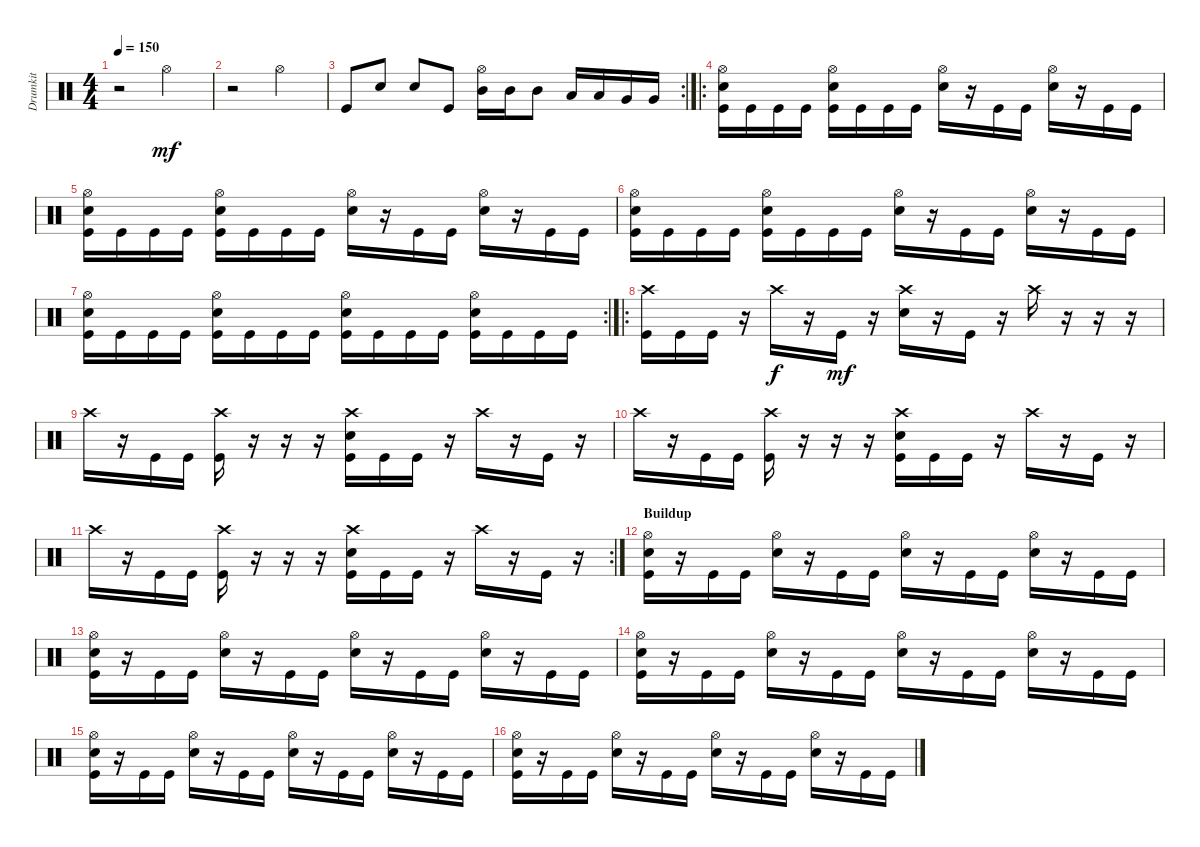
\track ("Drumkit" "Drumkit") {instrument percussion}
\staff {score}
\articulation defaults
\ts (4 4)
\tempo 150
\clef neutral
\ks c
r.2{dy mf} "Hi-Hat (open)".2 |
r.2 "Hi-Hat (open)".2 |
\rc 2 "Kick (hit)".8 "Snare (hit) 2".8 "Snare (hit) 2".8 "Kick (hit)".8
("Hi-Hat (open)" "Mid Tom (hit)").16 "Mid Tom (hit)".16 "Mid Tom (hit)".8 "Low Tom (hit)".16 "Low Tom (hit)".16 "Very Low Tom (hit)".16 "Very Low Tom (hit)".16 |
\ro
("Kick (hit)" "Hi-Hat (open)" "Snare (hit) 2").16 "Kick (hit)".16 "Kick (hit)".16 "Kick (hit)".16 ("Hi-Hat (open)" "Kick (hit)" "Snare (hit) 2").16 "Kick (hit)".16 "Kick (hit)".16 "Kick (hit)".16 ("Snare (hit) 2" "Hi-Hat (open)").16 r.16 "Kick (hit)".16 "Kick (hit)".16 ("Snare (hit) 2" "Hi-Hat (open)").16 r.16 "Kick (hit)".16 "Kick (hit)".16 |
("Snare (hit) 2" "Kick (hit)" "Hi-Hat (open)").16 "Kick (hit)".16 "Kick (hit)".16 "Kick (hit)".16 ("Snare (hit) 2" "Hi-Hat (open)" "Kick (hit)").16 "Kick (hit)".16 "Kick (hit)".16 "Kick (hit)".16 ("Snare (hit) 2" "Hi-Hat (open)").16 r.16 "Kick (hit)".16 "Kick (hit)".16 ("Snare (hit) 2" "Hi-Hat (open)").16 r.16 "Kick (hit)".16 "Kick (hit)".16 |
("Snare (hit) 2" "Kick (hit)" "Hi-Hat (open)").16 "Kick (hit)".16 "Kick (hit)".16 "Kick (hit)".16 ("Snare (hit) 2" "Hi-Hat (open)" "Kick (hit)").16 "Kick (hit)".16 "Kick (hit)".16 "Kick (hit)".16 ("Snare (hit) 2" "Hi-Hat (open)").16 r.16 "Kick (hit)".16 "Kick (hit)".16 ("Snare (hit) 2" "Hi-Hat (open)").16 r.16 "Kick (hit)".16 "Kick (hit)".16 |
\rc 2
("Snare (hit) 2" "Kick (hit)" "Hi-Hat (open)").16 "Kick (hit)".16 "Kick (hit)".16 "Kick (hit)".16 ("Snare (hit) 2" "Hi-Hat (open)" "Kick (hit)").16 "Kick (hit)".16 "Kick (hit)".16 "Kick (hit)".16 ("Snare (hit) 2" "Hi-Hat (open)" "Kick (hit)").16 "Kick (hit)".16 "Kick (hit)".16 "Kick (hit)".16 ("Snare (hit) 2" "Hi-Hat (open)" "Kick (hit)").16 "Kick (hit)".16 "Kick (hit)".16 "Kick (hit)".16 |
\ro
("Kick (hit)" "Crash high (hit)").16 "Kick (hit)".16 "Kick (hit)".16 r.16 "Crash high (hit)".16{dy f} r.16 "Kick (hit)".16{dy mf} r.16 ("Snare (hit) 2" "Crash high (hit)").16 r.16 "Kick (hit)".16 r.16 "Crash high (hit)".16 r.16 r.16 r.16 |
"Crash high (hit)".16 r.16 "Kick (hit)".16 "Kick (hit)".16 ("Kick (hit)" "Crash high (hit)").16 r.16 r.16 r.16 ("Snare (hit) 2" "Kick (hit)" "Crash high (hit)").16 "Kick (hit)".16 "Kick (hit)".16 r.16 "Crash high (hit)".16 r.16 "Kick (hit)".16 r.16 |
"Crash high (hit)".16 r.16 "Kick (hit)".16 "Kick (hit)".16 ("Kick (hit)" "Crash high (hit)").16 r.16 r.16 r.16 ("Snare (hit) 2" "Kick (hit)" "Crash high (hit)").16 "Kick (hit)".16 "Kick (hit)".16 r.16 "Crash high (hit)".16 r.16 "Kick (hit)".16 r.16 |
\rc 2 "Crash high (hit)".16
r.16 "Kick (hit)".16 "Kick (hit)".16 ("Kick (hit)" "Crash high (hit)").16 r.16 r.16 r.16 ("Snare (hit) 2" "Kick (hit)" "Crash high (hit)").16 "Kick (hit)".16 "Kick (hit)".16 r.16 "Crash high (hit)".16 r.16 "Kick (hit)".16 r.16 |
\section ("" "Buildup")
("Snare (hit) 2" "Kick (hit)" "Hi-Hat (open)").16 r.16 "Kick (hit)".16 "Kick (hit)".16 ("Snare (hit) 2" "Hi-Hat (open)").16 r.16 "Kick (hit)".16 "Kick (hit)".16 ("Snare (hit) 2" "Hi-Hat (open)").16 r.16 "Kick (hit)".16 "Kick (hit)".16 ("Snare (hit) 2" "Hi-Hat (open)").16 r.16 "Kick (hit)".16 "Kick (hit)".16 |
("Snare (hit) 2" "Kick (hit)" "Hi-Hat (open)").16 r.16 "Kick (hit)".16 "Kick (hit)".16 ("Snare (hit) 2" "Hi-Hat (open)").16 r.16 "Kick (hit)".16 "Kick (hit)".16 ("Snare (hit) 2" "Hi-Hat (open)").16 r.16 "Kick (hit)".16 "Kick (hit)".16 ("Snare (hit) 2" "Hi-Hat (open)").16 r.16 "Kick (hit)".16 "Kick (hit)".16 |
("Snare (hit) 2" "Kick (hit)" "Hi-Hat (open)").16 r.16 "Kick (hit)".16 "Kick (hit)".16 ("Snare (hit) 2" "Hi-Hat (open)").16 r.16 "Kick (hit)".16 "Kick (hit)".16 ("Snare (hit) 2" "Hi-Hat (open)").16 r.16 "Kick (hit)".16 "Kick (hit)".16 ("Snare (hit) 2" "Hi-Hat (open)").16 r.16 "Kick (hit)".16 "Kick (hit)".16 |
("Snare (hit) 2" "Kick (hit)" "Hi-Hat (open)").16 r.16 "Kick (hit)".16 "Kick (hit)".16 ("Snare (hit) 2" "Hi-Hat (open)").16 r.16 "Kick (hit)".16 "Kick (hit)".16 ("Snare (hit) 2" "Hi-Hat (open)").16 r.16 "Kick (hit)".16 "Kick (hit)".16 ("Snare (hit) 2" "Hi-Hat (open)").16 r.16 "Kick (hit)".16 "Kick (hit)".16 |
("Snare (hit) 2" "Kick (hit)" "Hi-Hat (open)").16 r.16 "Kick (hit)".16 "Kick (hit)".16 ("Snare (hit) 2" "Hi-Hat (open)").16 r.16 "Kick (hit)".16 "Kick (hit)".16 ("Snare (hit) 2" "Hi-Hat (open)").16 r.16 "Kick (hit)".16 "Kick (hit)".16 ("Snare (hit) 2" "Hi-Hat (open)").16 r.16 "Kick (hit)".16 "Kick (hit)".16
